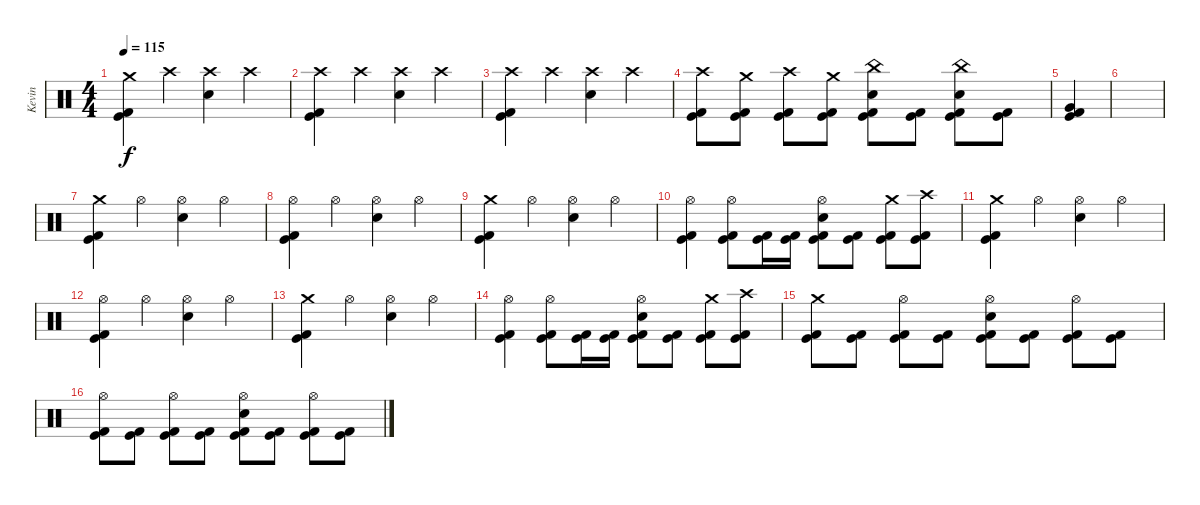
\track ("Kevin" "Kevin") {instrument percussion}
\staff {score}
\articulation defaults
\ts (4 4)
\tempo 115
\clef neutral
\ks c
("Crash medium (hit)" "Kick (hit)" "Kick (hit) 2").4{dy f} "Crash high (hit)".4 ("Crash high (hit)" "Electric Snare (hit)").4 "Crash high (hit)".4 |
("Crash high (hit)" "Kick (hit)" "Kick (hit) 2").4 "Crash high (hit)".4 ("Crash high (hit)" "Electric Snare (hit)").4 "Crash high (hit)".4 |
("Crash high (hit)" "Kick (hit)" "Kick (hit) 2").4 "Crash high (hit)".4 ("Crash high (hit)" "Electric Snare (hit)").4 "Crash high (hit)".4 |
("Crash high (hit)" "Kick (hit)" "Kick (hit) 2").8 ("Crash medium (hit)" "Kick (hit)" "Kick (hit) 2").8 ("Crash high (hit)" "Kick (hit)" "Kick (hit) 2").8 ("Crash medium (hit)" "Kick (hit)" "Kick (hit) 2").8 ("China (hit)" "Electric Snare (hit)" "Kick (hit)" "Kick (hit) 2").8 ("Kick (hit)" "Kick (hit) 2").8 ("China (hit)" "Electric Snare (hit)" "Kick (hit)" "Kick (hit) 2").8 ("Kick (hit)" "Kick (hit) 2").8 |
("Very Low Tom (hit)" "Kick (hit)" "Kick (hit) 2").4 |
|
("Crash medium (hit)" "Kick (hit)" "Kick (hit) 2").4 "Hi-Hat (open)".4 ("Hi-Hat (open)" "Electric Snare (hit)").4 "Hi-Hat (open)".4 |
("Hi-Hat (open)" "Kick (hit)" "Kick (hit) 2").4 "Hi-Hat (open)".4 ("Hi-Hat (open)" "Electric Snare (hit)").4 "Hi-Hat (open)".4 |
("Crash medium (hit)" "Kick (hit)" "Kick (hit) 2").4 "Hi-Hat (open)".4 ("Hi-Hat (open)" "Electric Snare (hit)").4 "Hi-Hat (open)".4 |
("Hi-Hat (open)" "Kick (hit)" "Kick (hit) 2").4 ("Hi-Hat (open)" "Kick (hit)" "Kick (hit) 2").8 ("Kick (hit)" "Kick (hit) 2").16 ("Kick (hit)" "Kick (hit) 2").16 ("Hi-Hat (open)" "Electric Snare (hit)" "Kick (hit)" "Kick (hit) 2").8 ("Kick (hit)" "Kick (hit) 2").8 ("Crash medium (hit)" "Kick (hit)" "Kick (hit) 2").8 ("Crash high (hit)" "Kick (hit)" "Kick (hit) 2").8 |
("Crash medium (hit)" "Kick (hit)" "Kick (hit) 2").4 "Hi-Hat (open)".4 ("Hi-Hat (open)" "Electric Snare (hit)").4 "Hi-Hat (open)".4 |
("Hi-Hat (open)" "Kick (hit)" "Kick (hit) 2").4 "Hi-Hat (open)".4 ("Hi-Hat (open)" "Electric Snare (hit)").4 "Hi-Hat (open)".4 |
("Crash medium (hit)" "Kick (hit)" "Kick (hit) 2").4 "Hi-Hat (open)".4 ("Hi-Hat (open)" "Electric Snare (hit)").4 "Hi-Hat (open)".4 |
("Hi-Hat (open)" "Kick (hit)" "Kick (hit) 2").4 ("Hi-Hat (open)" "Kick (hit)" "Kick (hit) 2").8 ("Kick (hit)" "Kick (hit) 2").16 ("Kick (hit)" "Kick (hit) 2").16 ("Hi-Hat (open)" "Electric Snare (hit)" "Kick (hit)" "Kick (hit) 2").8 ("Kick (hit)" "Kick (hit) 2").8 ("Crash medium (hit)" "Kick (hit)" "Kick (hit) 2").8 ("Crash high (hit)" "Kick (hit)" "Kick (hit) 2").8 |
("Crash medium (hit)" "Kick (hit)" "Kick (hit) 2").8 ("Kick (hit)" "Kick (hit) 2").8 ("Hi-Hat (open)" "Kick (hit)" "Kick (hit) 2").8 ("Kick (hit)" "Kick (hit) 2").8 ("Hi-Hat (open)" "Electric Snare (hit)" "Kick (hit)" "Kick (hit) 2").8 ("Kick (hit)" "Kick (hit) 2").8 ("Hi-Hat (open)" "Kick (hit)" "Kick (hit) 2").8 ("Kick (hit)" "Kick (hit) 2").8 |
("Hi-Hat (open)" "Kick (hit)" "Kick (hit) 2").8 ("Kick (hit)" "Kick (hit) 2").8 ("Hi-Hat (open)" "Kick (hit)" "Kick (hit) 2").8 ("Kick (hit)" "Kick (hit) 2").8 ("Hi-Hat (open)" "Electric Snare (hit)" "Kick (hit)" "Kick (hit) 2").8 ("Kick (hit)" "Kick (hit) 2").8 ("Hi-Hat (open)" "Kick (hit)" "Kick (hit) 2").8 ("Kick (hit)" "Kick (hit) 2").8
